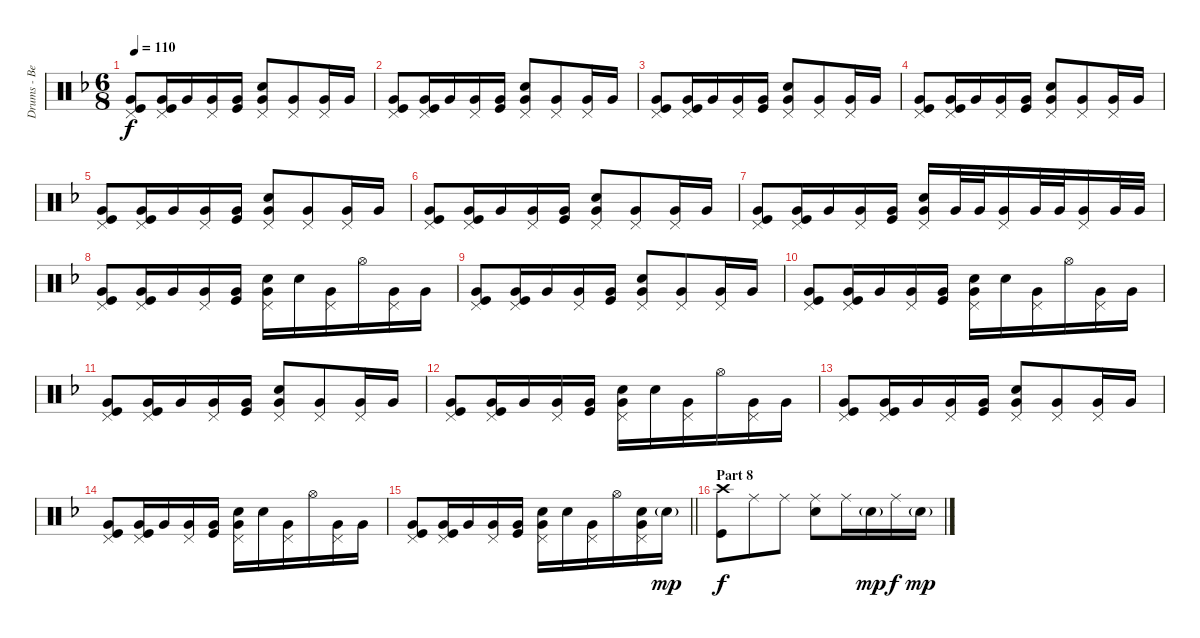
\track ("Drums - Ben Johnston" "Drums - Be") {instrument percussion}
\staff {score}
\articulation defaults
\ts (6 8)
\tempo 110
\clef neutral
\ks dminor
("Very Low Tom (hit)" "Pedal Hi-Hat (hit)" "Kick (hit)").8{dy f} ("Very Low Tom (hit)" "Pedal Hi-Hat (hit)" "Kick (hit)").16 "Very Low Tom (hit)".16 ("Very Low Tom (hit)" "Pedal Hi-Hat (hit)").16 ("Very Low Tom (hit)" "Kick (hit)").16 ("Very Low Tom (hit)" "Pedal Hi-Hat (hit)" "Snare (hit) 2").8 ("Very Low Tom (hit)" "Pedal Hi-Hat (hit)").8 ("Very Low Tom (hit)" "Pedal Hi-Hat (hit)").16 "Very Low Tom (hit)".16 |
("Very Low Tom (hit)" "Pedal Hi-Hat (hit)" "Kick (hit)").8 ("Very Low Tom (hit)" "Pedal Hi-Hat (hit)" "Kick (hit)").16 "Very Low Tom (hit)".16 ("Very Low Tom (hit)" "Pedal Hi-Hat (hit)").16 ("Very Low Tom (hit)" "Kick (hit)").16 ("Very Low Tom (hit)" "Pedal Hi-Hat (hit)" "Snare (hit) 2").8 ("Very Low Tom (hit)" "Pedal Hi-Hat (hit)").8 ("Very Low Tom (hit)" "Pedal Hi-Hat (hit)").16 "Very Low Tom (hit)".16 |
("Very Low Tom (hit)" "Pedal Hi-Hat (hit)" "Kick (hit)").8 ("Very Low Tom (hit)" "Pedal Hi-Hat (hit)" "Kick (hit)").16 "Very Low Tom (hit)".16 ("Very Low Tom (hit)" "Pedal Hi-Hat (hit)").16 ("Very Low Tom (hit)" "Kick (hit)").16 ("Very Low Tom (hit)" "Pedal Hi-Hat (hit)" "Snare (hit) 2").8 ("Very Low Tom (hit)" "Pedal Hi-Hat (hit)").8 ("Very Low Tom (hit)" "Pedal Hi-Hat (hit)").16 "Very Low Tom (hit)".16 |
("Very Low Tom (hit)" "Pedal Hi-Hat (hit)" "Kick (hit)").8 ("Very Low Tom (hit)" "Pedal Hi-Hat (hit)" "Kick (hit)").16 "Very Low Tom (hit)".16 ("Very Low Tom (hit)" "Pedal Hi-Hat (hit)").16 ("Very Low Tom (hit)" "Kick (hit)").16 ("Very Low Tom (hit)" "Pedal Hi-Hat (hit)" "Snare (hit) 2").8 ("Very Low Tom (hit)" "Pedal Hi-Hat (hit)").8 ("Very Low Tom (hit)" "Pedal Hi-Hat (hit)").16 "Very Low Tom (hit)".16 |
("Very Low Tom (hit)" "Pedal Hi-Hat (hit)" "Kick (hit)").8 ("Very Low Tom (hit)" "Pedal Hi-Hat (hit)" "Kick (hit)").16 "Very Low Tom (hit)".16 ("Very Low Tom (hit)" "Pedal Hi-Hat (hit)").16 ("Very Low Tom (hit)" "Kick (hit)").16 ("Very Low Tom (hit)" "Pedal Hi-Hat (hit)" "Snare (hit) 2").8 ("Very Low Tom (hit)" "Pedal Hi-Hat (hit)").8 ("Very Low Tom (hit)" "Pedal Hi-Hat (hit)").16 "Very Low Tom (hit)".16 |
("Very Low Tom (hit)" "Pedal Hi-Hat (hit)" "Kick (hit)").8 ("Very Low Tom (hit)" "Pedal Hi-Hat (hit)" "Kick (hit)").16 "Very Low Tom (hit)".16 ("Very Low Tom (hit)" "Pedal Hi-Hat (hit)").16 ("Very Low Tom (hit)" "Kick (hit)").16 ("Very Low Tom (hit)" "Pedal Hi-Hat (hit)" "Snare (hit) 2").8 ("Very Low Tom (hit)" "Pedal Hi-Hat (hit)").8 ("Very Low Tom (hit)" "Pedal Hi-Hat (hit)").16 "Very Low Tom (hit)".16 |
("Very Low Tom (hit)" "Pedal Hi-Hat (hit)" "Kick (hit)").8 ("Very Low Tom (hit)" "Pedal Hi-Hat (hit)" "Kick (hit)").16 "Very Low Tom (hit)".16 ("Very Low Tom (hit)" "Pedal Hi-Hat (hit)").16 ("Very Low Tom (hit)" "Kick (hit)").16 ("Very Low Tom (hit)" "Pedal Hi-Hat (hit)" "Snare (hit) 2").16 "Very Low Tom (hit)".32 "Very Low Tom (hit)".32 ("Very Low Tom (hit)" "Pedal Hi-Hat (hit)").16 "Very Low Tom (hit)".32 "Very Low Tom (hit)".32 ("Very Low Tom (hit)" "Pedal Hi-Hat (hit)").16 "Very Low Tom (hit)".32 "Very Low Tom (hit)".32 |
("Very Low Tom (hit)" "Pedal Hi-Hat (hit)" "Kick (hit)").8 ("Very Low Tom (hit)" "Pedal Hi-Hat (hit)" "Kick (hit)").16 "Very Low Tom (hit)".16 ("Very Low Tom (hit)" "Pedal Hi-Hat (hit)").16 ("Very Low Tom (hit)" "Kick (hit)").16 ("Very Low Tom (hit)" "Pedal Hi-Hat (hit)" "Snare (hit) 2").16 "Snare (hit) 2".16 ("Very Low Tom (hit)" "Pedal Hi-Hat (hit)").16 "Hi-Hat (open)".16 ("Very Low Tom (hit)" "Pedal Hi-Hat (hit)").16 "Very Low Tom (hit)".16 |
("Very Low Tom (hit)" "Pedal Hi-Hat (hit)" "Kick (hit)").8 ("Very Low Tom (hit)" "Pedal Hi-Hat (hit)" "Kick (hit)").16 "Very Low Tom (hit)".16 ("Very Low Tom (hit)" "Pedal Hi-Hat (hit)").16 ("Very Low Tom (hit)" "Kick (hit)").16 ("Very Low Tom (hit)" "Pedal Hi-Hat (hit)" "Snare (hit) 2").8 ("Very Low Tom (hit)" "Pedal Hi-Hat (hit)").8 ("Very Low Tom (hit)" "Pedal Hi-Hat (hit)").16 "Very Low Tom (hit)".16 |
("Very Low Tom (hit)" "Pedal Hi-Hat (hit)" "Kick (hit)").8 ("Very Low Tom (hit)" "Pedal Hi-Hat (hit)" "Kick (hit)").16 "Very Low Tom (hit)".16 ("Very Low Tom (hit)" "Pedal Hi-Hat (hit)").16 ("Very Low Tom (hit)" "Kick (hit)").16 ("Very Low Tom (hit)" "Pedal Hi-Hat (hit)" "Snare (hit) 2").16 "Snare (hit) 2".16 ("Very Low Tom (hit)" "Pedal Hi-Hat (hit)").16 "Hi-Hat (open)".16 ("Very Low Tom (hit)" "Pedal Hi-Hat (hit)").16 "Very Low Tom (hit)".16 |
("Very Low Tom (hit)" "Pedal Hi-Hat (hit)" "Kick (hit)").8 ("Very Low Tom (hit)" "Pedal Hi-Hat (hit)" "Kick (hit)").16 "Very Low Tom (hit)".16 ("Very Low Tom (hit)" "Pedal Hi-Hat (hit)").16 ("Very Low Tom (hit)" "Kick (hit)").16 ("Very Low Tom (hit)" "Pedal Hi-Hat (hit)" "Snare (hit) 2").8 ("Very Low Tom (hit)" "Pedal Hi-Hat (hit)").8 ("Very Low Tom (hit)" "Pedal Hi-Hat (hit)").16 "Very Low Tom (hit)".16 |
("Very Low Tom (hit)" "Pedal Hi-Hat (hit)" "Kick (hit)").8 ("Very Low Tom (hit)" "Pedal Hi-Hat (hit)" "Kick (hit)").16 "Very Low Tom (hit)".16 ("Very Low Tom (hit)" "Pedal Hi-Hat (hit)").16 ("Very Low Tom (hit)" "Kick (hit)").16 ("Very Low Tom (hit)" "Pedal Hi-Hat (hit)" "Snare (hit) 2").16 "Snare (hit) 2".16 ("Very Low Tom (hit)" "Pedal Hi-Hat (hit)").16 "Hi-Hat (open)".16 ("Very Low Tom (hit)" "Pedal Hi-Hat (hit)").16 "Very Low Tom (hit)".16 |
("Very Low Tom (hit)" "Pedal Hi-Hat (hit)" "Kick (hit)").8 ("Very Low Tom (hit)" "Pedal Hi-Hat (hit)" "Kick (hit)").16 "Very Low Tom (hit)".16 ("Very Low Tom (hit)" "Pedal Hi-Hat (hit)").16 ("Very Low Tom (hit)" "Kick (hit)").16 ("Very Low Tom (hit)" "Pedal Hi-Hat (hit)" "Snare (hit) 2").8 ("Very Low Tom (hit)" "Pedal Hi-Hat (hit)").8 ("Very Low Tom (hit)" "Pedal Hi-Hat (hit)").16 "Very Low Tom (hit)".16 |
("Very Low Tom (hit)" "Pedal Hi-Hat (hit)" "Kick (hit)").8 ("Very Low Tom (hit)" "Pedal Hi-Hat (hit)" "Kick (hit)").16 "Very Low Tom (hit)".16 ("Very Low Tom (hit)" "Pedal Hi-Hat (hit)").16 ("Very Low Tom (hit)" "Kick (hit)").16 ("Very Low Tom (hit)" "Pedal Hi-Hat (hit)" "Snare (hit) 2").16 "Snare (hit) 2".16 ("Very Low Tom (hit)" "Pedal Hi-Hat (hit)").16 "Hi-Hat (open)".16 ("Very Low Tom (hit)" "Pedal Hi-Hat (hit)").16 "Very Low Tom (hit)".16 |
\barLineRight lightlight
("Very Low Tom (hit)" "Pedal Hi-Hat (hit)" "Kick (hit)").8 ("Very Low Tom (hit)" "Pedal Hi-Hat (hit)" "Kick (hit)").16 "Very Low Tom (hit)".16 ("Very Low Tom (hit)" "Pedal Hi-Hat (hit)").16 ("Very Low Tom (hit)" "Kick (hit)").16 ("Very Low Tom (hit)" "Pedal Hi-Hat (hit)" "Snare (hit) 2").16 "Snare (hit) 2".16 ("Very Low Tom (hit)" "Pedal Hi-Hat (hit)").16 "Hi-Hat (open)".16 ("Very Low Tom (hit)" "Pedal Hi-Hat (hit)" "Snare (hit) 2").16 "Snare (hit) 2"{g}.16{dy mp} |
\section ("" "Part 8")
("Crash high (hit)" "Kick (hit)").8{dy f} "Ride (middle)".8 "Ride (middle)".8 ("Ride (middle)" "Snare (hit) 2").8 "Ride (middle)".16 "Snare (hit) 2"{g}.16{dy mp} "Ride (middle)".16{dy f} "Snare (hit) 2"{g}.16{dy mp}
